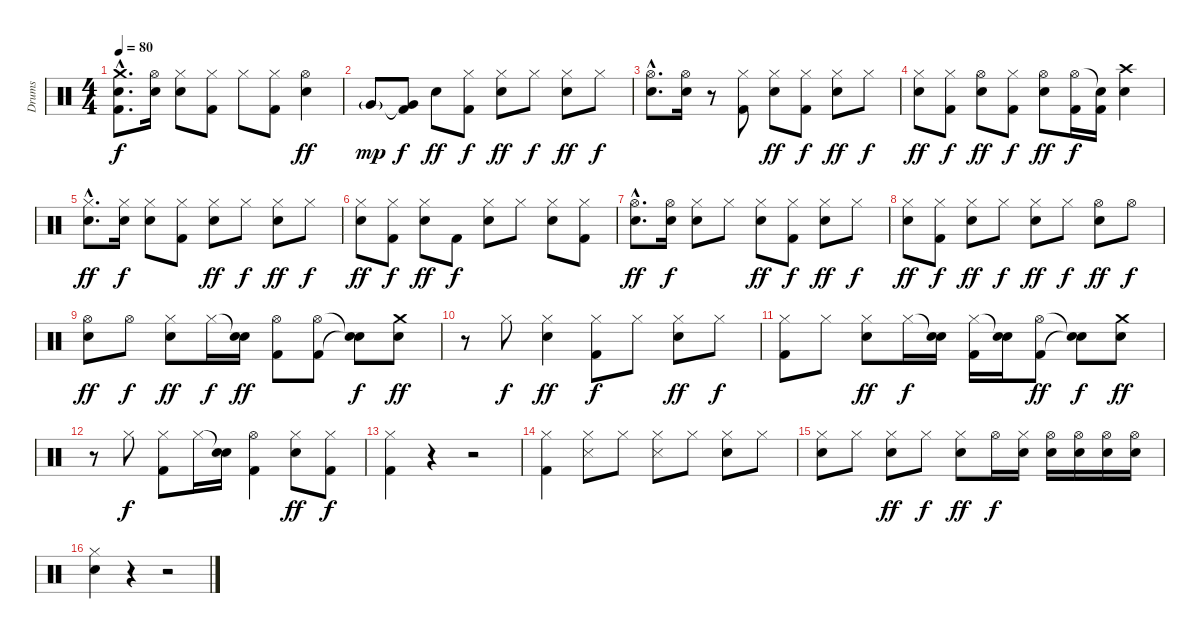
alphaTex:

\track ("Drums" "Drums") {instrument percussion}
\staff {score}
\articulation defaults
\ts (4 4)
\tempo 80
\clef neutral
\ks c
("Crash medium (hit)"{hac} "Electric Snare (hit)"{hac} "Kick (hit) 2"{hac}).8{d dy f} ("Hi-Hat (open)" "Electric Snare (hit)").16 ("Hi-Hat (closed)" "Electric Snare (hit)").8 ("Hi-Hat (closed)" "Kick (hit) 2").8 "Hi-Hat (closed)".8 ("Hi-Hat (closed)" "Kick (hit) 2").8 ("Hi-Hat (open)" "Electric Snare (hit)").4{dy ff} |
"Very Low Tom (hit)"{g}.8{dy mp} ("Very Low Tom (hit)"{t} "Kick (hit) 2").8{dy f} "Electric Snare (hit)".8{dy ff} ("Hi-Hat (closed)" "Kick (hit) 2").8{dy f} ("Hi-Hat (closed)" "Electric Snare (hit)").8{dy ff} "Hi-Hat (closed)".8{dy f} ("Hi-Hat (closed)" "Electric Snare (hit)").8{dy ff} "Hi-Hat (closed)".8{dy f} |
("Hi-Hat (open)"{hac} "Electric Snare (hit)"{hac}).8{d} ("Hi-Hat (open)" "Electric Snare (hit)").16 r.8 ("Hi-Hat (closed)" "Kick (hit) 2").8 ("Hi-Hat (closed)" "Electric Snare (hit)").8{dy ff} ("Hi-Hat (closed)" "Kick (hit) 2").8{dy f} ("Hi-Hat (closed)" "Electric Snare (hit)").8{dy ff} "Hi-Hat (closed)".8{dy f} |
("Hi-Hat (closed)" "Electric Snare (hit)").8{dy ff} ("Hi-Hat (closed)" "Kick (hit) 2").8{dy f} ("Hi-Hat (open)" "Electric Snare (hit)").8{dy ff} ("Hi-Hat (closed)" "Kick (hit) 2").8{dy f} ("Hi-Hat (open)" "Electric Snare (hit)").8{dy ff} ("Hi-Hat (open)" "Kick (hit) 2").16{dy f} ("Snare (hit)"{t} "Kick (hit) 2").16 ("Crash high (hit)" "Electric Snare (hit)").4 |
("Hi-Hat (closed)"{hac} "Electric Snare (hit)"{hac}).8{d dy ff} ("Hi-Hat (closed)" "Electric Snare (hit)").16{dy f} ("Hi-Hat (closed)" "Electric Snare (hit)").8 ("Hi-Hat (closed)" "Kick (hit) 2").8 ("Hi-Hat (closed)" "Electric Snare (hit)").8{dy ff} "Hi-Hat (closed)".8{dy f} ("Hi-Hat (closed)" "Electric Snare (hit)").8{dy ff} "Hi-Hat (closed)".8{dy f} |
("Hi-Hat (closed)" "Electric Snare (hit)").8{dy ff} ("Hi-Hat (closed)" "Kick (hit) 2").8{dy f} ("Hi-Hat (closed)" "Electric Snare (hit)").8{dy ff} "Kick (hit) 2".8{dy f} ("Hi-Hat (closed)" "Electric Snare (hit)").8 "Hi-Hat (closed)".8 ("Hi-Hat (closed)" "Electric Snare (hit)").8 ("Hi-Hat (closed)" "Kick (hit) 2").8 |
("Hi-Hat (open)"{hac} "Electric Snare (hit)"{hac}).8{d dy ff} ("Hi-Hat (open)" "Electric Snare (hit)").16{dy f} ("Hi-Hat (closed)" "Electric Snare (hit)").8 "Hi-Hat (closed)".8 ("Hi-Hat (closed)" "Electric Snare (hit)").8{dy ff} ("Hi-Hat (closed)" "Kick (hit) 2").8{dy f} ("Hi-Hat (closed)" "Electric Snare (hit)").8{dy ff} "Hi-Hat (closed)".8{dy f} |
("Hi-Hat (closed)" "Electric Snare (hit)").8{dy ff} ("Hi-Hat (closed)" "Kick (hit) 2").8{dy f} ("Hi-Hat (closed)" "Electric Snare (hit)").8{dy ff} "Hi-Hat (closed)".8{dy f} ("Hi-Hat (closed)" "Electric Snare (hit)").8{dy ff} "Hi-Hat (closed)".8{dy f} ("Hi-Hat (open)" "Electric Snare (hit)").8{dy ff} "Hi-Hat (open)".8{dy f} |
("Hi-Hat (open)" "Electric Snare (hit)").8{dy ff} "Hi-Hat (open)".8{dy f} ("Hi-Hat (closed)" "Electric Snare (hit)").8{dy ff} "Hi-Hat (closed)".16{dy f} ("Snare (hit)"{t} "Electric Snare (hit)").16{dy ff} ("Hi-Hat (open)" "Kick (hit) 2").8 ("Hi-Hat (open)" "Kick (hit) 2").8 ("Snare (hit)"{t} "Snare (hit)"{t}).8{dy f} ("Crash medium (hit)" "Electric Snare (hit)").8{dy ff} |
r.8 "Hi-Hat (closed)".8{dy f} ("Hi-Hat (closed)" "Electric Snare (hit)").4{dy ff} ("Hi-Hat (closed)" "Kick (hit) 2").8{dy f} "Hi-Hat (closed)".8 ("Hi-Hat (closed)" "Electric Snare (hit)").8{dy ff} "Hi-Hat (closed)".8{dy f} |
("Hi-Hat (closed)" "Kick (hit) 2").8 "Hi-Hat (closed)".8 ("Hi-Hat (closed)" "Electric Snare (hit)").8{dy ff} "Hi-Hat (closed)".16{dy f} ("Snare (hit)"{t} "Electric Snare (hit)").16 ("Hi-Hat (closed)" "Kick (hit) 2").16 ("Snare (hit)"{t} "Electric Snare (hit)").16 ("Hi-Hat (open)" "Kick (hit) 2").8{dy ff} ("Snare (hit)"{t} "Snare (hit)"{t}).8{dy f} ("Crash medium (hit)" "Electric Snare (hit)").8{dy ff} |
r.8 "Hi-Hat (closed)".8{dy f} ("Hi-Hat (closed)" "Kick (hit) 2").8 "Hi-Hat (closed)".16 ("Snare (hit)"{t} "Electric Snare (hit)").16 ("Hi-Hat (open)" "Kick (hit) 2").4 ("Hi-Hat (closed)" "Electric Snare (hit)").8{dy ff} ("Hi-Hat (closed)" "Kick (hit) 2").8{dy f} |
("Hi-Hat (closed)" "Kick (hit) 2").4 r.4 r.2 |
("Hi-Hat (closed)" "Kick (hit) 2").4 ("Hi-Hat (closed)" "Metronome (hit)").8 "Hi-Hat (closed)".8 ("Hi-Hat (closed)" "Metronome (hit)").8 "Hi-Hat (closed)".8 ("Hi-Hat (closed)" "Electric Snare (hit)").8 "Hi-Hat (closed)".8 |
("Hi-Hat (closed)" "Electric Snare (hit)").8 "Hi-Hat (closed)".8 ("Hi-Hat (closed)" "Electric Snare (hit)").8{dy ff} "Hi-Hat (closed)".8{dy f} ("Hi-Hat (closed)" "Electric Snare (hit)").8{dy ff} "Hi-Hat (open)".16{dy f} ("Hi-Hat (closed)" "Electric Snare (hit)").16 ("Hi-Hat (open)" "Electric Snare (hit)").16 ("Hi-Hat (open)" "Electric Snare (hit)").16 ("Hi-Hat (open)" "Electric Snare (hit)").16 ("Hi-Hat (open)" "Electric Snare (hit)").16 |
("Hi-Hat (closed)" "Electric Snare (hit)").4 r.4 r.2
